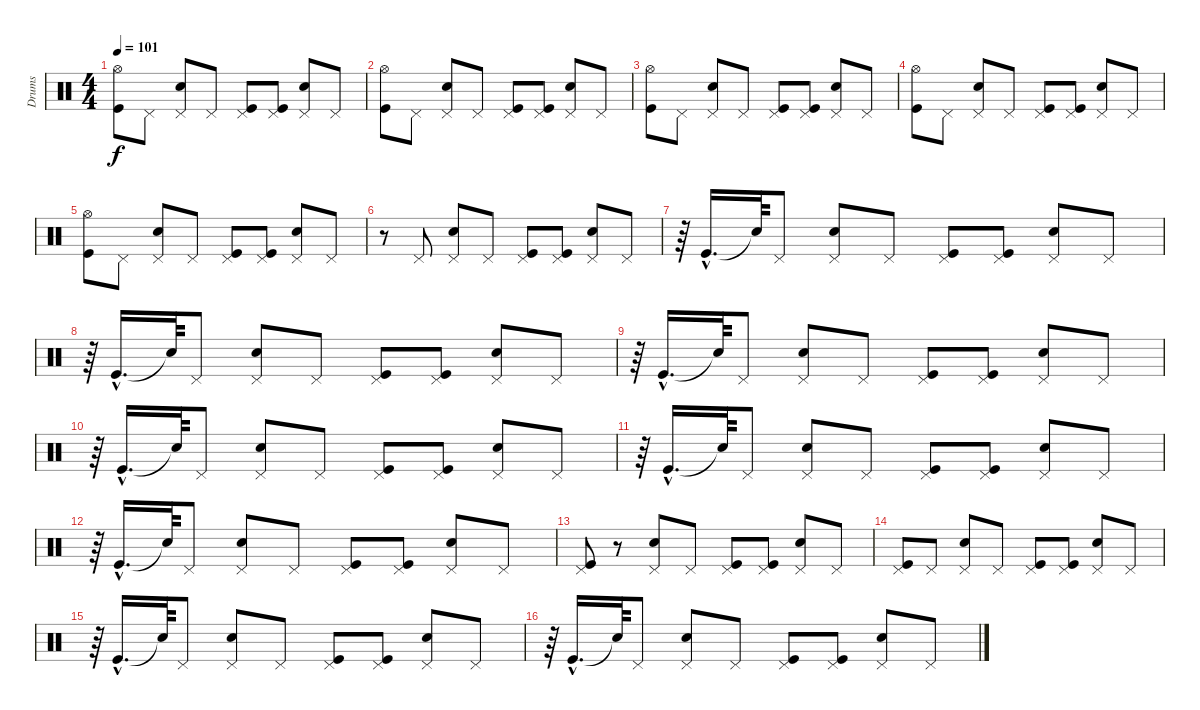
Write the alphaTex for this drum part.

\track ("Drums" "Drums") {instrument percussion}
\staff {score}
\articulation defaults
\ts (4 4)
\tempo 101
\clef neutral
\ks c
("Kick (hit)" "Hi-Hat (open)").8{dy f} "Pedal Hi-Hat (hit)".8 ("Electric Snare (hit)" "Pedal Hi-Hat (hit)").8 "Pedal Hi-Hat (hit)".8 ("Kick (hit)" "Pedal Hi-Hat (hit)").8 ("Kick (hit)" "Pedal Hi-Hat (hit)").8 ("Electric Snare (hit)" "Pedal Hi-Hat (hit)").8 "Pedal Hi-Hat (hit)".8 |
("Kick (hit)" "Hi-Hat (open)").8 "Pedal Hi-Hat (hit)".8 ("Electric Snare (hit)" "Pedal Hi-Hat (hit)").8 "Pedal Hi-Hat (hit)".8 ("Kick (hit)" "Pedal Hi-Hat (hit)").8 ("Kick (hit)" "Pedal Hi-Hat (hit)").8 ("Electric Snare (hit)" "Pedal Hi-Hat (hit)").8 "Pedal Hi-Hat (hit)".8 |
("Kick (hit)" "Hi-Hat (open)").8 "Pedal Hi-Hat (hit)".8 ("Electric Snare (hit)" "Pedal Hi-Hat (hit)").8 "Pedal Hi-Hat (hit)".8 ("Kick (hit)" "Pedal Hi-Hat (hit)").8 ("Kick (hit)" "Pedal Hi-Hat (hit)").8 ("Electric Snare (hit)" "Pedal Hi-Hat (hit)").8 "Pedal Hi-Hat (hit)".8 |
("Kick (hit)" "Hi-Hat (open)").8 "Pedal Hi-Hat (hit)".8 ("Electric Snare (hit)" "Pedal Hi-Hat (hit)").8 "Pedal Hi-Hat (hit)".8 ("Kick (hit)" "Pedal Hi-Hat (hit)").8 ("Kick (hit)" "Pedal Hi-Hat (hit)").8 ("Electric Snare (hit)" "Pedal Hi-Hat (hit)").8 "Pedal Hi-Hat (hit)".8 |
("Kick (hit)" "Hi-Hat (open)").8 "Pedal Hi-Hat (hit)".8 ("Electric Snare (hit)" "Pedal Hi-Hat (hit)").8 "Pedal Hi-Hat (hit)".8 ("Kick (hit)" "Pedal Hi-Hat (hit)").8 ("Kick (hit)" "Pedal Hi-Hat (hit)").8 ("Electric Snare (hit)" "Pedal Hi-Hat (hit)").8 "Pedal Hi-Hat (hit)".8 |
r.8 "Pedal Hi-Hat (hit)".8 ("Electric Snare (hit)" "Pedal Hi-Hat (hit)").8 "Pedal Hi-Hat (hit)".8 ("Kick (hit)" "Pedal Hi-Hat (hit)").8 ("Kick (hit)" "Pedal Hi-Hat (hit)").8 ("Electric Snare (hit)" "Pedal Hi-Hat (hit)").8 "Pedal Hi-Hat (hit)".8 |
r.64 "Kick (hit)"{hac}.16{d} "Snare (hit)"{t}.64 "Pedal Hi-Hat (hit)".8 ("Electric Snare (hit)" "Pedal Hi-Hat (hit)").8 "Pedal Hi-Hat (hit)".8 ("Kick (hit)" "Pedal Hi-Hat (hit)").8 ("Kick (hit)" "Pedal Hi-Hat (hit)").8 ("Electric Snare (hit)" "Pedal Hi-Hat (hit)").8 "Pedal Hi-Hat (hit)".8 |
r.64 "Kick (hit)"{hac}.16{d} "Snare (hit)"{t}.64 "Pedal Hi-Hat (hit)".8 ("Electric Snare (hit)" "Pedal Hi-Hat (hit)").8 "Pedal Hi-Hat (hit)".8 ("Kick (hit)" "Pedal Hi-Hat (hit)").8 ("Kick (hit)" "Pedal Hi-Hat (hit)").8 ("Electric Snare (hit)" "Pedal Hi-Hat (hit)").8 "Pedal Hi-Hat (hit)".8 |
r.64 "Kick (hit)"{hac}.16{d} "Snare (hit)"{t}.64 "Pedal Hi-Hat (hit)".8 ("Electric Snare (hit)" "Pedal Hi-Hat (hit)").8 "Pedal Hi-Hat (hit)".8 ("Kick (hit)" "Pedal Hi-Hat (hit)").8 ("Kick (hit)" "Pedal Hi-Hat (hit)").8 ("Electric Snare (hit)" "Pedal Hi-Hat (hit)").8 "Pedal Hi-Hat (hit)".8 |
r.64 "Kick (hit)"{hac}.16{d} "Snare (hit)"{t}.64 "Pedal Hi-Hat (hit)".8 ("Electric Snare (hit)" "Pedal Hi-Hat (hit)").8 "Pedal Hi-Hat (hit)".8 ("Kick (hit)" "Pedal Hi-Hat (hit)").8 ("Kick (hit)" "Pedal Hi-Hat (hit)").8 ("Electric Snare (hit)" "Pedal Hi-Hat (hit)").8 "Pedal Hi-Hat (hit)".8 |
r.64 "Kick (hit)"{hac}.16{d} "Snare (hit)"{t}.64 "Pedal Hi-Hat (hit)".8 ("Electric Snare (hit)" "Pedal Hi-Hat (hit)").8 "Pedal Hi-Hat (hit)".8 ("Kick (hit)" "Pedal Hi-Hat (hit)").8 ("Kick (hit)" "Pedal Hi-Hat (hit)").8 ("Electric Snare (hit)" "Pedal Hi-Hat (hit)").8 "Pedal Hi-Hat (hit)".8 |
r.64 "Kick (hit)"{hac}.16{d} "Snare (hit)"{t}.64 "Pedal Hi-Hat (hit)".8 ("Electric Snare (hit)" "Pedal Hi-Hat (hit)").8 "Pedal Hi-Hat (hit)".8 ("Kick (hit)" "Pedal Hi-Hat (hit)").8 ("Kick (hit)" "Pedal Hi-Hat (hit)").8 ("Electric Snare (hit)" "Pedal Hi-Hat (hit)").8 "Pedal Hi-Hat (hit)".8 |
("Kick (hit)" "Pedal Hi-Hat (hit)").8 r.8 ("Electric Snare (hit)" "Pedal Hi-Hat (hit)").8 "Pedal Hi-Hat (hit)".8 ("Kick (hit)" "Pedal Hi-Hat (hit)").8 ("Kick (hit)" "Pedal Hi-Hat (hit)").8 ("Electric Snare (hit)" "Pedal Hi-Hat (hit)").8 "Pedal Hi-Hat (hit)".8 |
("Kick (hit)" "Pedal Hi-Hat (hit)").8 "Pedal Hi-Hat (hit)".8 ("Electric Snare (hit)" "Pedal Hi-Hat (hit)").8 "Pedal Hi-Hat (hit)".8 ("Kick (hit)" "Pedal Hi-Hat (hit)").8 ("Kick (hit)" "Pedal Hi-Hat (hit)").8 ("Electric Snare (hit)" "Pedal Hi-Hat (hit)").8 "Pedal Hi-Hat (hit)".8 |
r.64 "Kick (hit)"{hac}.16{d} "Snare (hit)"{t}.64 "Pedal Hi-Hat (hit)".8 ("Electric Snare (hit)" "Pedal Hi-Hat (hit)").8 "Pedal Hi-Hat (hit)".8 ("Kick (hit)" "Pedal Hi-Hat (hit)").8 ("Kick (hit)" "Pedal Hi-Hat (hit)").8 ("Electric Snare (hit)" "Pedal Hi-Hat (hit)").8 "Pedal Hi-Hat (hit)".8 |
r.64 "Kick (hit)"{hac}.16{d} "Snare (hit)"{t}.64 "Pedal Hi-Hat (hit)".8 ("Electric Snare (hit)" "Pedal Hi-Hat (hit)").8 "Pedal Hi-Hat (hit)".8 ("Kick (hit)" "Pedal Hi-Hat (hit)").8 ("Kick (hit)" "Pedal Hi-Hat (hit)").8 ("Electric Snare (hit)" "Pedal Hi-Hat (hit)").8 "Pedal Hi-Hat (hit)".8
